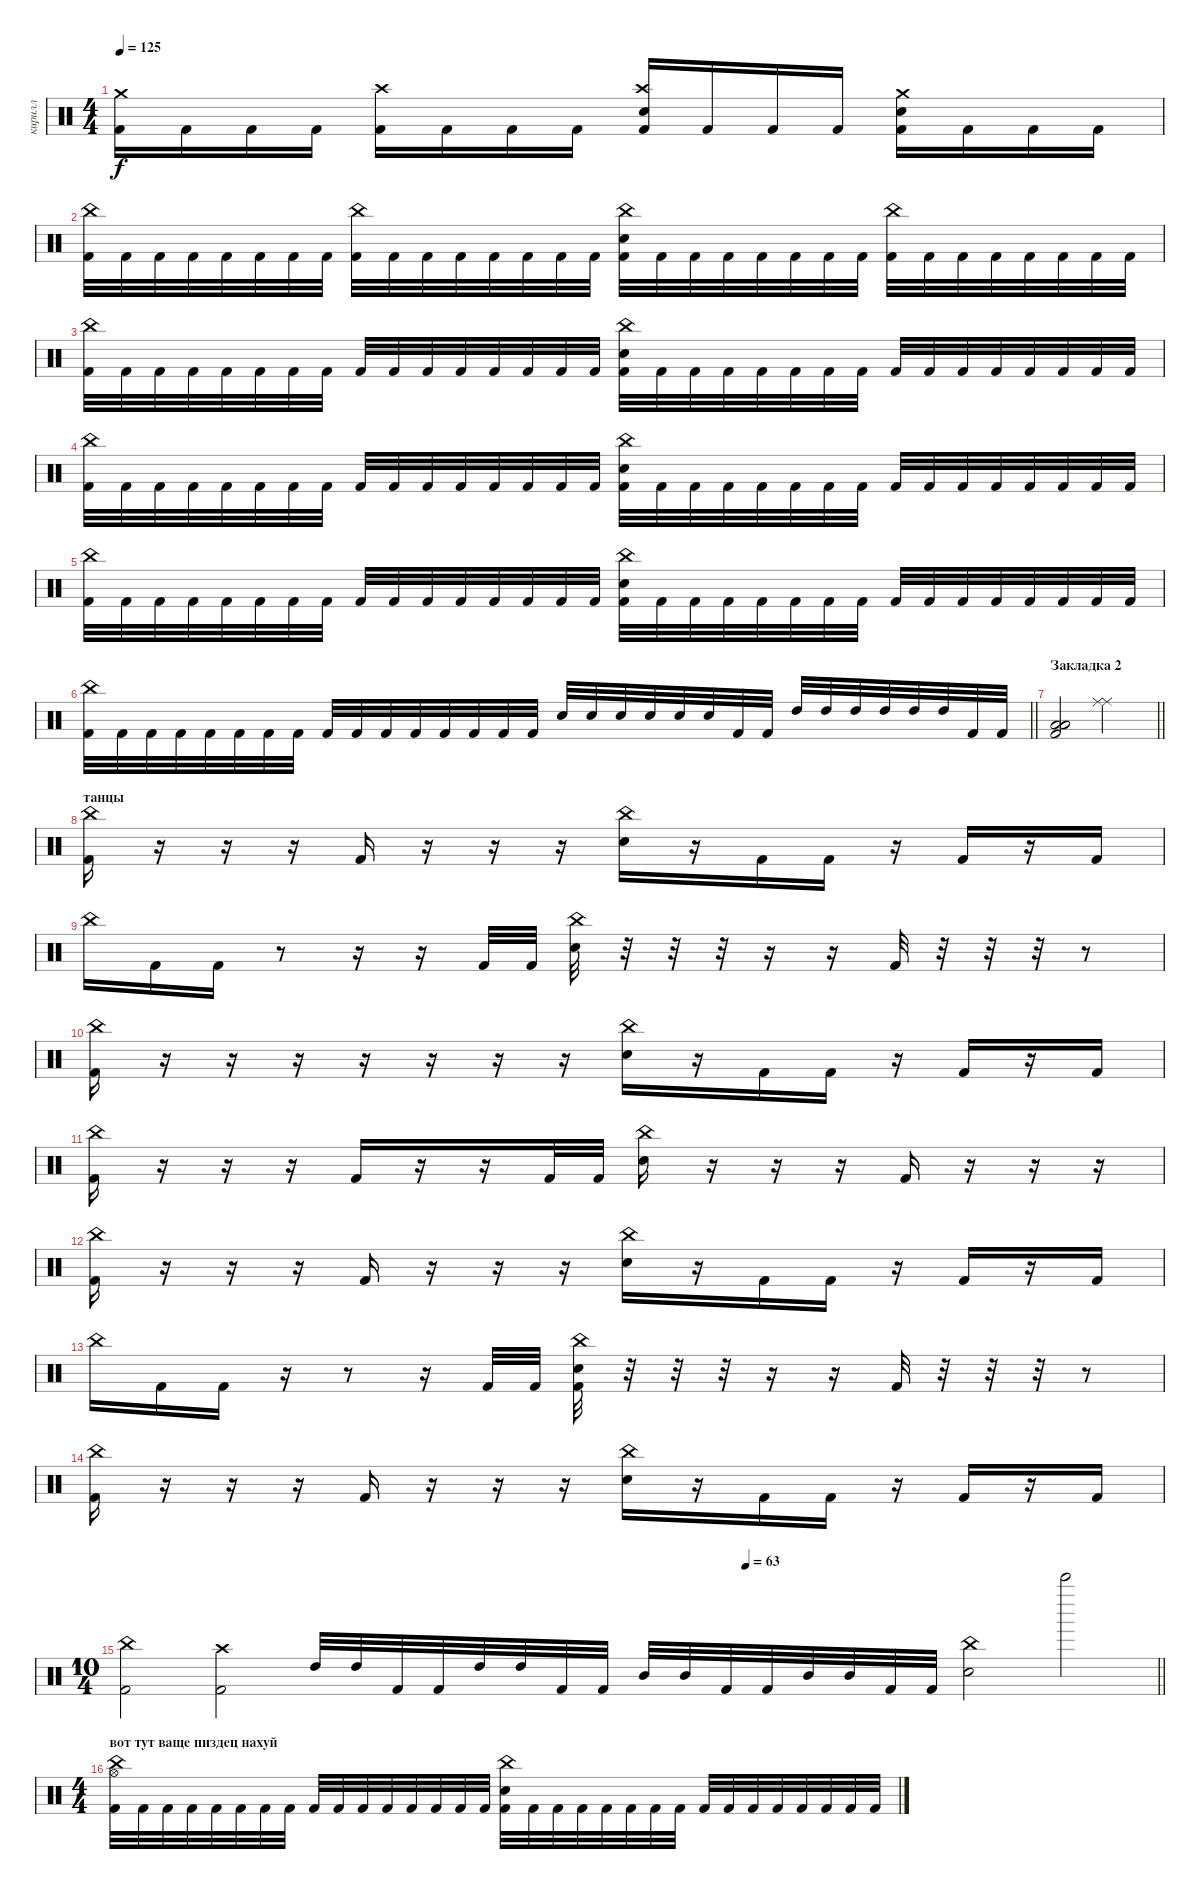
\track ("кирилл" "кирилл") {instrument percussion}
\staff {score}
\articulation defaults
\ts (4 4)
\tempo 125
\clef neutral
\ks c
("Crash medium (hit)" "Kick (hit) 2").16{dy f} "Kick (hit) 2".16 "Kick (hit) 2".16 "Kick (hit) 2".16 ("Crash high (hit)" "Kick (hit) 2").16 "Kick (hit) 2".16 "Kick (hit) 2".16 "Kick (hit) 2".16 ("Crash high (hit)" "Electric Snare (hit)" "Kick (hit) 2").16 "Kick (hit) 2".16 "Kick (hit) 2".16 "Kick (hit) 2".16 ("Crash medium (hit)" "Electric Snare (hit)" "Kick (hit) 2").16 "Kick (hit) 2".16 "Kick (hit) 2".16 "Kick (hit) 2".16 |
("China (hit)" "Kick (hit) 2").32 "Kick (hit) 2".32 "Kick (hit) 2".32 "Kick (hit) 2".32 "Kick (hit) 2".32 "Kick (hit) 2".32 "Kick (hit) 2".32 "Kick (hit) 2".32 ("China (hit)" "Kick (hit) 2").32 "Kick (hit) 2".32 "Kick (hit) 2".32 "Kick (hit) 2".32 "Kick (hit) 2".32 "Kick (hit) 2".32 "Kick (hit) 2".32 "Kick (hit) 2".32 ("China (hit)" "Electric Snare (hit)" "Kick (hit) 2").32 "Kick (hit) 2".32 "Kick (hit) 2".32 "Kick (hit) 2".32 "Kick (hit) 2".32 "Kick (hit) 2".32 "Kick (hit) 2".32 "Kick (hit) 2".32 ("China (hit)" "Kick (hit) 2").32 "Kick (hit) 2".32 "Kick (hit) 2".32 "Kick (hit) 2".32 "Kick (hit) 2".32 "Kick (hit) 2".32 "Kick (hit) 2".32 "Kick (hit) 2".32 |
("China (hit)" "Kick (hit) 2").32 "Kick (hit) 2".32 "Kick (hit) 2".32 "Kick (hit) 2".32 "Kick (hit) 2".32 "Kick (hit) 2".32 "Kick (hit) 2".32 "Kick (hit) 2".32 "Kick (hit) 2".32 "Kick (hit) 2".32 "Kick (hit) 2".32 "Kick (hit) 2".32 "Kick (hit) 2".32 "Kick (hit) 2".32 "Kick (hit) 2".32 "Kick (hit) 2".32 ("China (hit)" "Electric Snare (hit)" "Kick (hit) 2").32 "Kick (hit) 2".32 "Kick (hit) 2".32 "Kick (hit) 2".32 "Kick (hit) 2".32 "Kick (hit) 2".32 "Kick (hit) 2".32 "Kick (hit) 2".32 "Kick (hit) 2".32 "Kick (hit) 2".32 "Kick (hit) 2".32 "Kick (hit) 2".32 "Kick (hit) 2".32 "Kick (hit) 2".32 "Kick (hit) 2".32 "Kick (hit) 2".32 |
("China (hit)" "Kick (hit) 2").32 "Kick (hit) 2".32 "Kick (hit) 2".32 "Kick (hit) 2".32 "Kick (hit) 2".32 "Kick (hit) 2".32 "Kick (hit) 2".32 "Kick (hit) 2".32 "Kick (hit) 2".32 "Kick (hit) 2".32 "Kick (hit) 2".32 "Kick (hit) 2".32 "Kick (hit) 2".32 "Kick (hit) 2".32 "Kick (hit) 2".32 "Kick (hit) 2".32 ("China (hit)" "Electric Snare (hit)" "Kick (hit) 2").32 "Kick (hit) 2".32 "Kick (hit) 2".32 "Kick (hit) 2".32 "Kick (hit) 2".32 "Kick (hit) 2".32 "Kick (hit) 2".32 "Kick (hit) 2".32 "Kick (hit) 2".32 "Kick (hit) 2".32 "Kick (hit) 2".32 "Kick (hit) 2".32 "Kick (hit) 2".32 "Kick (hit) 2".32 "Kick (hit) 2".32 "Kick (hit) 2".32 |
("China (hit)" "Kick (hit) 2").32 "Kick (hit) 2".32 "Kick (hit) 2".32 "Kick (hit) 2".32 "Kick (hit) 2".32 "Kick (hit) 2".32 "Kick (hit) 2".32 "Kick (hit) 2".32 "Kick (hit) 2".32 "Kick (hit) 2".32 "Kick (hit) 2".32 "Kick (hit) 2".32 "Kick (hit) 2".32 "Kick (hit) 2".32 "Kick (hit) 2".32 "Kick (hit) 2".32 ("China (hit)" "Electric Snare (hit)" "Kick (hit) 2").32 "Kick (hit) 2".32 "Kick (hit) 2".32 "Kick (hit) 2".32 "Kick (hit) 2".32 "Kick (hit) 2".32 "Kick (hit) 2".32 "Kick (hit) 2".32 "Kick (hit) 2".32 "Kick (hit) 2".32 "Kick (hit) 2".32 "Kick (hit) 2".32 "Kick (hit) 2".32 "Kick (hit) 2".32 "Kick (hit) 2".32 "Kick (hit) 2".32 |
\barLineRight lightlight
("China (hit)" "Kick (hit) 2").32 "Kick (hit) 2".32 "Kick (hit) 2".32 "Kick (hit) 2".32 "Kick (hit) 2".32 "Kick (hit) 2".32 "Kick (hit) 2".32 "Kick (hit) 2".32 "Kick (hit) 2".32 "Kick (hit) 2".32 "Kick (hit) 2".32 "Kick (hit) 2".32 "Kick (hit) 2".32 "Kick (hit) 2".32 "Kick (hit) 2".32 "Kick (hit) 2".32 "Electric Snare (hit)".32 "Electric Snare (hit)".32 "Electric Snare (hit)".32 "Electric Snare (hit)".32 "Electric Snare (hit)".32 "Electric Snare (hit)".32 "Kick (hit) 2".32 "Kick (hit) 2".32 "High Tom (hit)".32 "High Tom (hit)".32 "High Tom (hit)".32 "High Tom (hit)".32 "High Tom (hit)".32 "High Tom (hit)".32 "Kick (hit) 2".32 "Kick (hit) 2".32 |
\section ("" "Закладка 2")
\barLineRight lightlight
("Low Tom (hit)" "Low Tom (hit)" "Kick (hit) 2").2 ("Ride (middle)" "Ride (middle)").2 |
\section ("" "танцы")
("China (hit)" "Kick (hit) 2").16 r.16 r.16 r.16 "Kick (hit) 2".16 r.16 r.16 r.16 ("China (hit)" "Electric Snare (hit)").16 r.16 "Kick (hit) 2".16 "Kick (hit) 2".16 r.16 "Kick (hit) 2".16 r.16 "Kick (hit) 2".16 |
"China (hit)".16 "Kick (hit) 2".16 "Kick (hit) 2".16 r.8 r.16 r.16 "Kick (hit) 2".32 "Kick (hit) 2".32 ("China (hit)" "Electric Snare (hit)").32 r.32 r.32 r.32 r.16 r.16 "Kick (hit) 2".32 r.32 r.32 r.32 r.8 |
("China (hit)" "Kick (hit) 2").16 r.16 r.16 r.16 r.16 r.16 r.16 r.16 ("China (hit)" "Electric Snare (hit)").16 r.16 "Kick (hit) 2".16 "Kick (hit) 2".16 r.16 "Kick (hit) 2".16 r.16 "Kick (hit) 2".16 |
("China (hit)" "Kick (hit) 2").16 r.16 r.16 r.16 "Kick (hit) 2".16 r.16 r.16 "Kick (hit) 2".32 "Kick (hit) 2".32 ("China (hit)" "Electric Snare (hit)").16 r.16 r.16 r.16 "Kick (hit) 2".16 r.16 r.16 r.16 |
("China (hit)" "Kick (hit) 2").16 r.16 r.16 r.16 "Kick (hit) 2".16 r.16 r.16 r.16 ("China (hit)" "Electric Snare (hit)").16 r.16 "Kick (hit) 2".16 "Kick (hit) 2".16 r.16 "Kick (hit) 2".16 r.16 "Kick (hit) 2".16 |
"China (hit)".16 "Kick (hit) 2".16 "Kick (hit) 2".16 r.16 r.8 r.16 "Kick (hit) 2".32 "Kick (hit) 2".32 ("China (hit)" "Electric Snare (hit)" "Kick (hit) 2").32 r.32 r.32 r.32 r.16 r.16 "Kick (hit) 2".32 r.32 r.32 r.32 r.8 |
("China (hit)" "Kick (hit) 2").16 r.16 r.16 r.16 "Kick (hit) 2".16 r.16 r.16 r.16 ("China (hit)" "Electric Snare (hit)").16 r.16 "Kick (hit) 2".16 "Kick (hit) 2".16 r.16 "Kick (hit) 2".16 r.16 "Kick (hit) 2".16 |
\ts (10 4)
\tempo (63 0.6)
\barLineRight lightlight
("China (hit)" "Kick (hit) 2").2 ("Crash high (hit)" "Kick (hit) 2").2 "High Tom (hit)".32 "High Tom (hit)".32 "Kick (hit) 2".32 "Kick (hit) 2".32 "High Tom (hit)".32 "High Tom (hit)".32 "Kick (hit) 2".32 "Kick (hit) 2".32 "Mid Tom (hit)".32 "Mid Tom (hit)".32 "Kick (hit) 2".32 "Kick (hit) 2".32 "Mid Tom (hit)".32 "Mid Tom (hit)".32 "Kick (hit) 2".32 "Kick (hit) 2".32 ("China (hit)" "Electric Snare (hit)").2 "Bell Tree (hit)".2 |
\ts (4 4)
\section ("" "вот тут ваще пиздец нахуй")
("China (hit)" "Hi-Hat (open)" "Kick (hit) 2").32 "Kick (hit) 2".32 "Kick (hit) 2".32 "Kick (hit) 2".32 "Kick (hit) 2".32 "Kick (hit) 2".32 "Kick (hit) 2".32 "Kick (hit) 2".32 "Kick (hit) 2".32 "Kick (hit) 2".32 "Kick (hit) 2".32 "Kick (hit) 2".32 "Kick (hit) 2".32 "Kick (hit) 2".32 "Kick (hit) 2".32 "Kick (hit) 2".32 ("China (hit)" "Electric Snare (hit)" "Kick (hit) 2").32 "Kick (hit) 2".32 "Kick (hit) 2".32 "Kick (hit) 2".32 "Kick (hit) 2".32 "Kick (hit) 2".32 "Kick (hit) 2".32 "Kick (hit) 2".32 "Kick (hit) 2".32 "Kick (hit) 2".32 "Kick (hit) 2".32 "Kick (hit) 2".32 "Kick (hit) 2".32 "Kick (hit) 2".32 "Kick (hit) 2".32 "Kick (hit) 2".32
